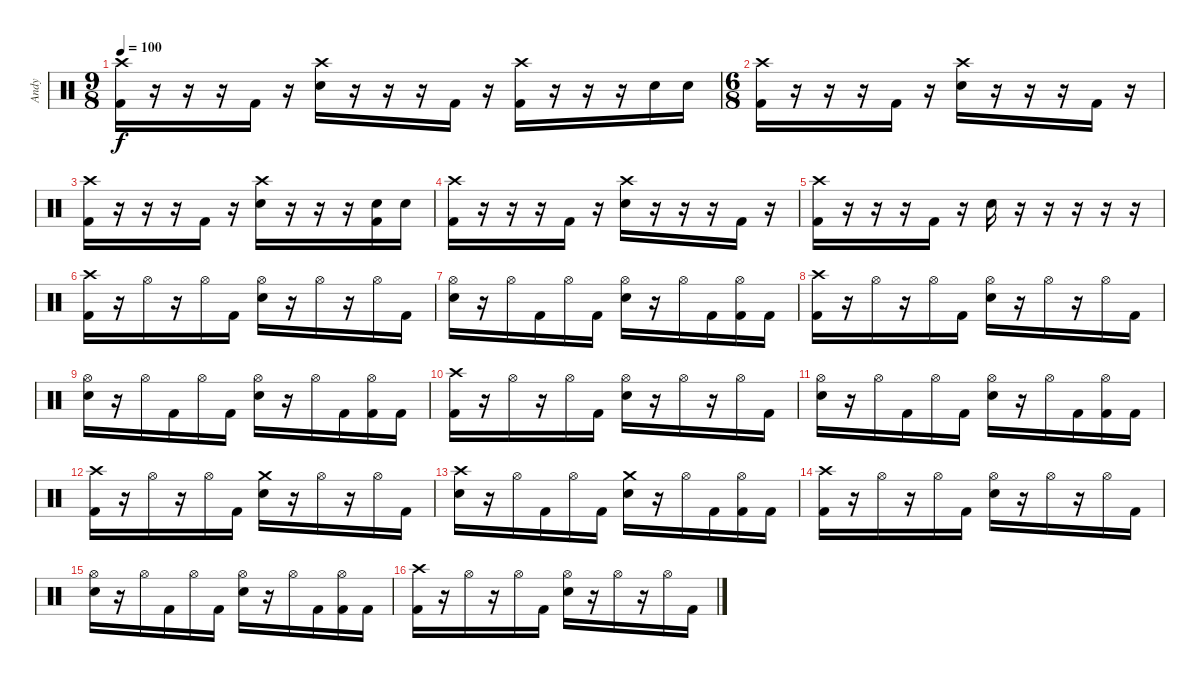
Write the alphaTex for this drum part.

\track ("Andy" "Andy") {instrument percussion}
\staff {score}
\articulation defaults
\ts (9 8)
\tempo 100
\clef neutral
\ks c
("Crash high (hit)" "Kick (hit) 2").16{dy f} r.16 r.16 r.16 "Kick (hit) 2".16 r.16 ("Crash high (hit)" "Electric Snare (hit)").16 r.16 r.16 r.16 "Kick (hit) 2".16 r.16 ("Crash high (hit)" "Kick (hit) 2").16 r.16 r.16 r.16 "Electric Snare (hit)".16 "Electric Snare (hit)".16 |
\ts (6 8)
("Crash high (hit)" "Kick (hit) 2").16 r.16 r.16 r.16 "Kick (hit) 2".16 r.16 ("Crash high (hit)" "Electric Snare (hit)").16 r.16 r.16 r.16 "Kick (hit) 2".16 r.16 |
("Crash high (hit)" "Kick (hit) 2").16 r.16 r.16 r.16 "Kick (hit) 2".16 r.16 ("Crash high (hit)" "Electric Snare (hit)").16 r.16 r.16 r.16 ("Electric Snare (hit)" "Kick (hit) 2").16 "Electric Snare (hit)".16 |
("Crash high (hit)" "Kick (hit) 2").16 r.16 r.16 r.16 "Kick (hit) 2".16 r.16 ("Crash high (hit)" "Electric Snare (hit)").16 r.16 r.16 r.16 "Kick (hit) 2".16 r.16 |
("Crash high (hit)" "Kick (hit) 2").16 r.16 r.16 r.16 "Kick (hit) 2".16 r.16 "Electric Snare (hit)".16 r.16 r.16 r.16 r.16 r.16 |
("Crash high (hit)" "Kick (hit) 2").16 r.16 "Hi-Hat (open)".16 r.16 "Hi-Hat (open)".16 "Kick (hit) 2".16 ("Hi-Hat (open)" "Electric Snare (hit)").16 r.16 "Hi-Hat (open)".16 r.16 "Hi-Hat (open)".16 "Kick (hit) 2".16 |
("Hi-Hat (open)" "Electric Snare (hit)").16 r.16 "Hi-Hat (open)".16 "Kick (hit) 2".16 "Hi-Hat (open)".16 "Kick (hit) 2".16 ("Hi-Hat (open)" "Electric Snare (hit)").16 r.16 "Hi-Hat (open)".16 "Kick (hit) 2".16 ("Hi-Hat (open)" "Kick (hit) 2").16 "Kick (hit) 2".16 |
("Crash high (hit)" "Kick (hit) 2").16 r.16 "Hi-Hat (open)".16 r.16 "Hi-Hat (open)".16 "Kick (hit) 2".16 ("Hi-Hat (open)" "Electric Snare (hit)").16 r.16 "Hi-Hat (open)".16 r.16 "Hi-Hat (open)".16 "Kick (hit) 2".16 |
("Hi-Hat (open)" "Electric Snare (hit)").16 r.16 "Hi-Hat (open)".16 "Kick (hit) 2".16 "Hi-Hat (open)".16 "Kick (hit) 2".16 ("Hi-Hat (open)" "Electric Snare (hit)").16 r.16 "Hi-Hat (open)".16 "Kick (hit) 2".16 ("Hi-Hat (open)" "Kick (hit) 2").16 "Kick (hit) 2".16 |
("Crash high (hit)" "Kick (hit) 2").16 r.16 "Hi-Hat (open)".16 r.16 "Hi-Hat (open)".16 "Kick (hit) 2".16 ("Hi-Hat (open)" "Electric Snare (hit)").16 r.16 "Hi-Hat (open)".16 r.16 "Hi-Hat (open)".16 "Kick (hit) 2".16 |
("Hi-Hat (open)" "Electric Snare (hit)").16 r.16 "Hi-Hat (open)".16 "Kick (hit) 2".16 "Hi-Hat (open)".16 "Kick (hit) 2".16 ("Hi-Hat (open)" "Electric Snare (hit)").16 r.16 "Hi-Hat (open)".16 "Kick (hit) 2".16 ("Hi-Hat (open)" "Kick (hit) 2").16 "Kick (hit) 2".16 |
("Crash high (hit)" "Kick (hit) 2").16 r.16 "Hi-Hat (open)".16 r.16 "Hi-Hat (open)".16 "Kick (hit) 2".16 ("Crash medium (hit)" "Electric Snare (hit)").16 r.16 "Hi-Hat (open)".16 r.16 "Hi-Hat (open)".16 "Kick (hit) 2".16 |
("Crash high (hit)" "Electric Snare (hit)").16 r.16 "Hi-Hat (open)".16 "Kick (hit) 2".16 "Hi-Hat (open)".16 "Kick (hit) 2".16 ("Crash medium (hit)" "Electric Snare (hit)").16 r.16 "Hi-Hat (open)".16 "Kick (hit) 2".16 ("Hi-Hat (open)" "Kick (hit) 2").16 "Kick (hit) 2".16 |
("Crash high (hit)" "Kick (hit) 2").16 r.16 "Hi-Hat (open)".16 r.16 "Hi-Hat (open)".16 "Kick (hit) 2".16 ("Hi-Hat (open)" "Electric Snare (hit)").16 r.16 "Hi-Hat (open)".16 r.16 "Hi-Hat (open)".16 "Kick (hit) 2".16 |
("Hi-Hat (open)" "Electric Snare (hit)").16 r.16 "Hi-Hat (open)".16 "Kick (hit) 2".16 "Hi-Hat (open)".16 "Kick (hit) 2".16 ("Hi-Hat (open)" "Electric Snare (hit)").16 r.16 "Hi-Hat (open)".16 "Kick (hit) 2".16 ("Hi-Hat (open)" "Kick (hit) 2").16 "Kick (hit) 2".16 |
("Crash high (hit)" "Kick (hit) 2").16 r.16 "Hi-Hat (open)".16 r.16 "Hi-Hat (open)".16 "Kick (hit) 2".16 ("Hi-Hat (open)" "Electric Snare (hit)").16 r.16 "Hi-Hat (open)".16 r.16 "Hi-Hat (open)".16 "Kick (hit) 2".16
